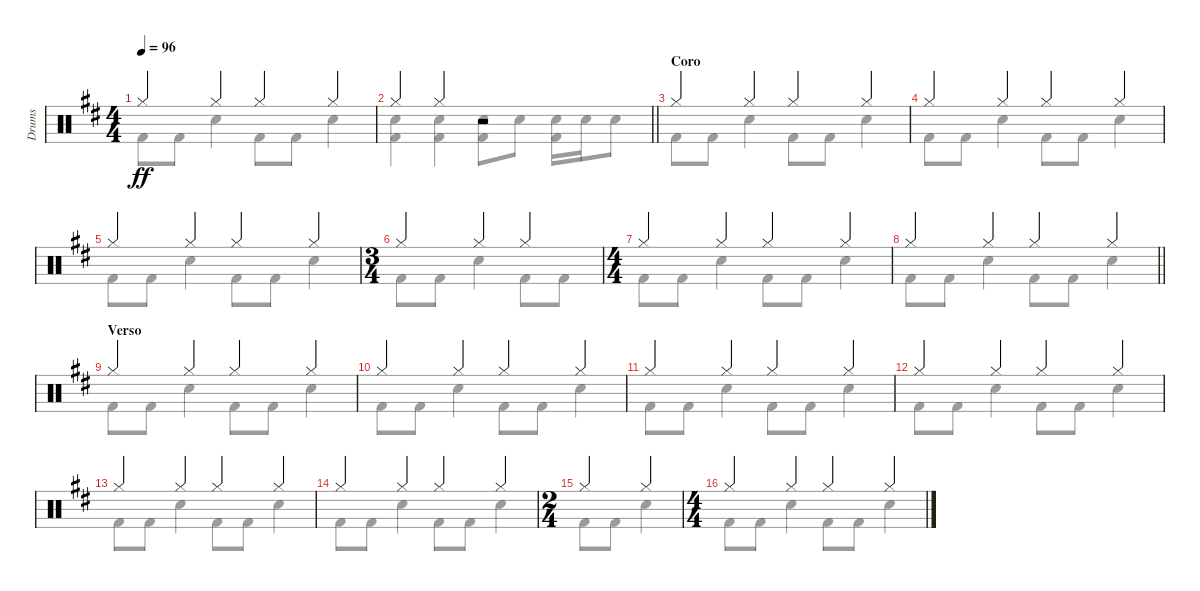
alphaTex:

\track ("Drums" "Drums") {instrument percussion}
\staff {score}
\articulation defaults
\voice
\ts (4 4)
\tempo 96
\clef neutral
\ks d "Hi-Hat (closed)".4{dy ff} "Hi-Hat (closed)".4 "Hi-Hat (closed)".4 "Hi-Hat (closed)".4
|
\barLineRight lightlight "Hi-Hat (closed)".4 "Hi-Hat (closed)".4
r.2 |
\section ("" "Coro")
"Hi-Hat (closed)".4 "Hi-Hat (closed)".4 "Hi-Hat (closed)".4 "Hi-Hat (closed)".4 |
"Hi-Hat (closed)".4 "Hi-Hat (closed)".4 "Hi-Hat (closed)".4 "Hi-Hat (closed)".4 |
"Hi-Hat (closed)".4 "Hi-Hat (closed)".4 "Hi-Hat (closed)".4 "Hi-Hat (closed)".4 |
\ts (3 4)
"Hi-Hat (closed)".4 "Hi-Hat (closed)".4 "Hi-Hat (closed)".4 |
\ts (4 4)
"Hi-Hat (closed)".4 "Hi-Hat (closed)".4 "Hi-Hat (closed)".4 "Hi-Hat (closed)".4 |
\barLineRight lightlight "Hi-Hat (closed)".4 "Hi-Hat (closed)".4 "Hi-Hat (closed)".4 "Hi-Hat (closed)".4
|
\section ("" "Verso")
"Hi-Hat (closed)".4 "Hi-Hat (closed)".4 "Hi-Hat (closed)".4 "Hi-Hat (closed)".4 |
"Hi-Hat (closed)".4 "Hi-Hat (closed)".4 "Hi-Hat (closed)".4 "Hi-Hat (closed)".4 |
"Hi-Hat (closed)".4 "Hi-Hat (closed)".4 "Hi-Hat (closed)".4 "Hi-Hat (closed)".4 |
"Hi-Hat (closed)".4 "Hi-Hat (closed)".4 "Hi-Hat (closed)".4 "Hi-Hat (closed)".4 |
"Hi-Hat (closed)".4 "Hi-Hat (closed)".4 "Hi-Hat (closed)".4 "Hi-Hat (closed)".4 |
"Hi-Hat (closed)".4 "Hi-Hat (closed)".4 "Hi-Hat (closed)".4 "Hi-Hat (closed)".4 |
\ts (2 4)
"Hi-Hat (closed)".4 "Hi-Hat (closed)".4 |
\ts (4 4)
"Hi-Hat (closed)".4 "Hi-Hat (closed)".4 "Hi-Hat (closed)".4 "Hi-Hat (closed)".4
\voice
\clef neutral
\ottava regular
\simile none
\ks d "Kick (hit) 2".8{dy ff} "Kick (hit) 2".8 "Electric Snare (hit)".4 "Kick (hit) 2".8 "Kick (hit) 2".8 "Electric Snare (hit)".4
|
\barLineRight lightlight
("Electric Snare (hit)" "Kick (hit) 2").4 ("Electric Snare (hit)" "Kick (hit) 2").4 ("Electric Snare (hit)" "Kick (hit) 2").8 "Electric Snare (hit)".8 ("Electric Snare (hit)" "Kick (hit) 2").16 "Electric Snare (hit)".16 "Electric Snare (hit)".8 |
"Kick (hit) 2".8 "Kick (hit) 2".8 "Electric Snare (hit)".4 "Kick (hit) 2".8 "Kick (hit) 2".8 "Electric Snare (hit)".4 |
"Kick (hit) 2".8 "Kick (hit) 2".8 "Electric Snare (hit)".4 "Kick (hit) 2".8 "Kick (hit) 2".8 "Electric Snare (hit)".4 |
"Kick (hit) 2".8 "Kick (hit) 2".8 "Electric Snare (hit)".4 "Kick (hit) 2".8 "Kick (hit) 2".8 "Electric Snare (hit)".4 |
"Kick (hit) 2".8 "Kick (hit) 2".8 "Electric Snare (hit)".4 "Kick (hit) 2".8 "Kick (hit) 2".8 |
"Kick (hit) 2".8 "Kick (hit) 2".8 "Electric Snare (hit)".4 "Kick (hit) 2".8 "Kick (hit) 2".8 "Electric Snare (hit)".4 |
\barLineRight lightlight "Kick (hit) 2".8 "Kick (hit) 2".8 "Electric Snare (hit)".4 "Kick (hit) 2".8 "Kick (hit) 2".8 "Electric Snare (hit)".4
|
"Kick (hit) 2".8 "Kick (hit) 2".8 "Electric Snare (hit)".4 "Kick (hit) 2".8 "Kick (hit) 2".8 "Electric Snare (hit)".4 |
"Kick (hit) 2".8 "Kick (hit) 2".8 "Electric Snare (hit)".4 "Kick (hit) 2".8 "Kick (hit) 2".8 "Electric Snare (hit)".4 |
"Kick (hit) 2".8 "Kick (hit) 2".8 "Electric Snare (hit)".4 "Kick (hit) 2".8 "Kick (hit) 2".8 "Electric Snare (hit)".4 |
"Kick (hit) 2".8 "Kick (hit) 2".8 "Electric Snare (hit)".4 "Kick (hit) 2".8 "Kick (hit) 2".8 "Electric Snare (hit)".4 |
"Kick (hit) 2".8 "Kick (hit) 2".8 "Electric Snare (hit)".4 "Kick (hit) 2".8 "Kick (hit) 2".8 "Electric Snare (hit)".4 |
"Kick (hit) 2".8 "Kick (hit) 2".8 "Electric Snare (hit)".4 "Kick (hit) 2".8 "Kick (hit) 2".8 "Electric Snare (hit)".4 |
"Kick (hit) 2".8 "Kick (hit) 2".8 "Electric Snare (hit)".4 |
"Kick (hit) 2".8 "Kick (hit) 2".8 "Electric Snare (hit)".4 "Kick (hit) 2".8 "Kick (hit) 2".8 "Electric Snare (hit)".4
